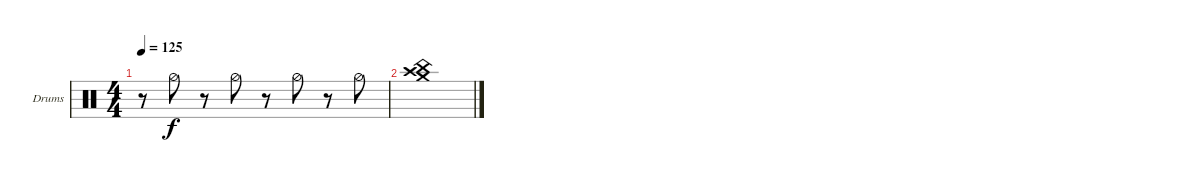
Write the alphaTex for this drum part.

\defaultSystemsLayout 4
\bracketExtendMode groupsimilarinstruments
\firstSystemTrackNameOrientation horizontal
\otherSystemsTrackNameOrientation horizontal
\track ("Drumkit" "Drums") {instrument percussion}
\staff {score}
\articulation defaults
\ts (4 4)
\tempo 125
\clef neutral
\ks c
r.8{dy f} "Hi-Hat (half)".8 r.8 "Hi-Hat (half)".8 r.8 "Hi-Hat (half)".8 r.8 "Hi-Hat (half)".8 |
("Crash medium (hit)" "Crash high (hit)" "China (hit)").1
